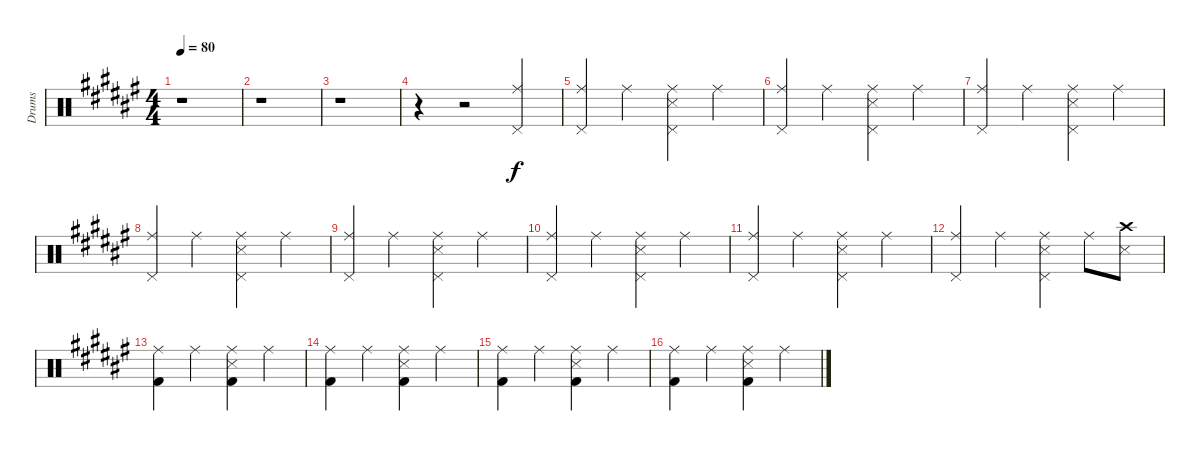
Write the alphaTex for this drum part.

\track ("Drums" "Drums") {instrument percussion}
\staff {score}
\articulation defaults
\ts (4 4)
\tempo 80
\clef neutral
\ks f#
r.1{dy f} |
r.1 |
r.1 |
r.4 r.2 ("Ride (middle)" "Pedal Hi-Hat (hit)").4 |
("Ride (middle)" "Pedal Hi-Hat (hit)").4 "Ride (middle)".4 ("Ride (middle)" "Snare (side stick) 3" "Pedal Hi-Hat (hit)").4 "Ride (middle)".4 |
("Ride (middle)" "Pedal Hi-Hat (hit)").4 "Ride (middle)".4 ("Ride (middle)" "Snare (side stick) 3" "Pedal Hi-Hat (hit)").4 "Ride (middle)".4 |
("Ride (middle)" "Pedal Hi-Hat (hit)").4 "Ride (middle)".4 ("Ride (middle)" "Snare (side stick) 3" "Pedal Hi-Hat (hit)").4 "Ride (middle)".4 |
("Ride (middle)" "Pedal Hi-Hat (hit)").4 "Ride (middle)".4 ("Ride (middle)" "Snare (side stick) 3" "Pedal Hi-Hat (hit)").4 "Ride (middle)".4 |
("Ride (middle)" "Pedal Hi-Hat (hit)").4 "Ride (middle)".4 ("Ride (middle)" "Snare (side stick) 3" "Pedal Hi-Hat (hit)").4 "Ride (middle)".4 |
("Ride (middle)" "Pedal Hi-Hat (hit)").4 "Ride (middle)".4 ("Ride (middle)" "Snare (side stick) 3" "Pedal Hi-Hat (hit)").4 "Ride (middle)".4 |
("Ride (middle)" "Pedal Hi-Hat (hit)").4 "Ride (middle)".4 ("Ride (middle)" "Snare (side stick) 3" "Pedal Hi-Hat (hit)").4 "Ride (middle)".4 |
("Ride (middle)" "Pedal Hi-Hat (hit)").4 "Ride (middle)".4 ("Ride (middle)" "Snare (side stick) 3" "Pedal Hi-Hat (hit)").4 "Ride (middle)".8 ("Crash high (hit)" "Snare (side stick) 3").8 |
("Ride (middle)" "Kick (hit) 2").4 "Ride (middle)".4 ("Ride (middle)" "Snare (side stick) 3" "Kick (hit) 2").4 "Ride (middle)".4 |
("Ride (middle)" "Kick (hit) 2").4 "Ride (middle)".4 ("Ride (middle)" "Snare (side stick) 3" "Kick (hit) 2").4 "Ride (middle)".4 |
("Ride (middle)" "Kick (hit) 2").4 "Ride (middle)".4 ("Ride (middle)" "Snare (side stick) 3" "Kick (hit) 2").4 "Ride (middle)".4 |
("Ride (middle)" "Kick (hit) 2").4 "Ride (middle)".4 ("Ride (middle)" "Snare (side stick) 3" "Kick (hit) 2").4 "Ride (middle)".4
